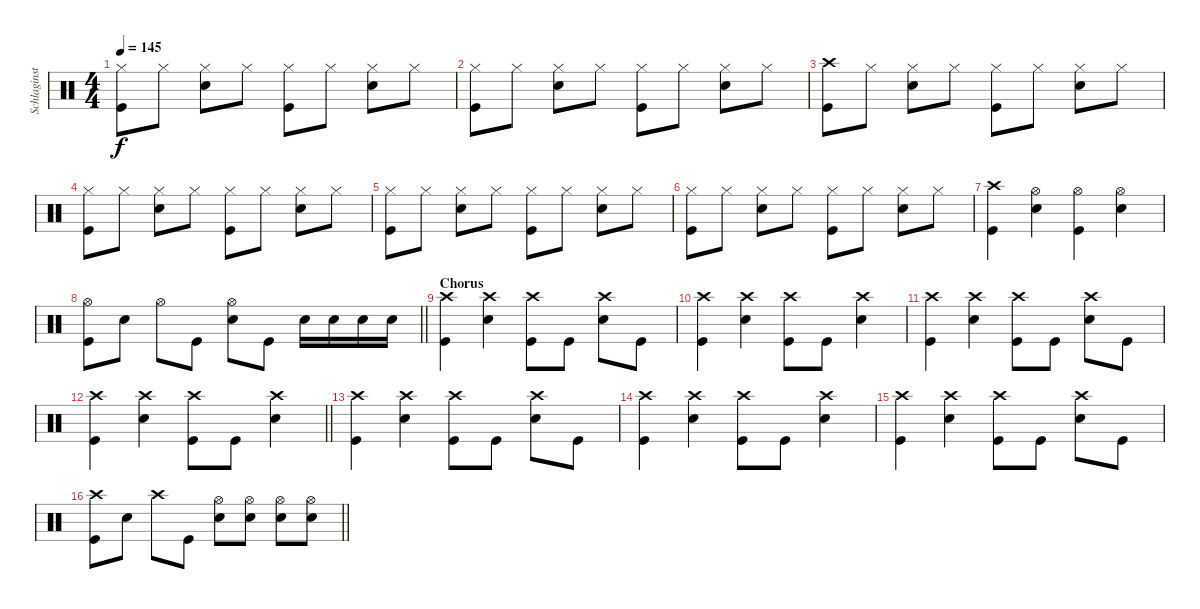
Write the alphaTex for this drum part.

\track ("Schlaginstrumente - Auswahl" "Schlaginst") {instrument percussion}
\staff {score}
\articulation defaults
\ts (4 4)
\tempo 145
\clef neutral
\ks c
("Hi-Hat (closed)" "Kick (hit)").8{dy f} "Hi-Hat (closed)".8 ("Hi-Hat (closed)" "Snare (hit) 2").8 "Hi-Hat (closed)".8 ("Hi-Hat (closed)" "Kick (hit)").8 "Hi-Hat (closed)".8 ("Hi-Hat (closed)" "Snare (hit) 2").8 "Hi-Hat (closed)".8 |
("Hi-Hat (closed)" "Kick (hit)").8 "Hi-Hat (closed)".8 ("Hi-Hat (closed)" "Snare (hit) 2").8 "Hi-Hat (closed)".8 ("Hi-Hat (closed)" "Kick (hit)").8 "Hi-Hat (closed)".8 ("Hi-Hat (closed)" "Snare (hit) 2").8 "Hi-Hat (closed)".8 |
("Crash high (hit)" "Kick (hit)").8 "Hi-Hat (closed)".8 ("Hi-Hat (closed)" "Snare (hit) 2").8 "Hi-Hat (closed)".8 ("Hi-Hat (closed)" "Kick (hit)").8 "Hi-Hat (closed)".8 ("Hi-Hat (closed)" "Snare (hit) 2").8 "Hi-Hat (closed)".8 |
("Hi-Hat (closed)" "Kick (hit)").8 "Hi-Hat (closed)".8 ("Hi-Hat (closed)" "Snare (hit) 2").8 "Hi-Hat (closed)".8 ("Hi-Hat (closed)" "Kick (hit)").8 "Hi-Hat (closed)".8 ("Hi-Hat (closed)" "Snare (hit) 2").8 "Hi-Hat (closed)".8 |
("Hi-Hat (closed)" "Kick (hit)").8 "Hi-Hat (closed)".8 ("Hi-Hat (closed)" "Snare (hit) 2").8 "Hi-Hat (closed)".8 ("Hi-Hat (closed)" "Kick (hit)").8 "Hi-Hat (closed)".8 ("Hi-Hat (closed)" "Snare (hit) 2").8 "Hi-Hat (closed)".8 |
("Hi-Hat (closed)" "Kick (hit)").8 "Hi-Hat (closed)".8 ("Hi-Hat (closed)" "Snare (hit) 2").8 "Hi-Hat (closed)".8 ("Hi-Hat (closed)" "Kick (hit)").8 "Hi-Hat (closed)".8 ("Hi-Hat (closed)" "Snare (hit) 2").8 "Hi-Hat (closed)".8 |
("Crash high (hit)" "Kick (hit)").4 ("Snare (hit) 2" "Hi-Hat (open)").4 ("Kick (hit)" "Hi-Hat (open)").4 ("Snare (hit) 2" "Hi-Hat (open)").4 |
\barLineRight lightlight
("Kick (hit)" "Hi-Hat (open)").8 "Snare (hit) 2".8 "Hi-Hat (open)".8 "Kick (hit)".8 ("Snare (hit) 2" "Hi-Hat (open)").8 "Kick (hit)".8 "Snare (hit) 2".16 "Snare (hit) 2".16 "Snare (hit) 2".16 "Snare (hit) 2".16 |
\section ("" "Chorus")
("Kick (hit)" "Crash high (hit)").4 ("Snare (hit) 2" "Crash high (hit)").4 ("Kick (hit)" "Crash high (hit)").8 "Kick (hit)".8 ("Snare (hit) 2" "Crash high (hit)").8 "Kick (hit)".8 |
("Kick (hit)" "Crash high (hit)").4 ("Snare (hit) 2" "Crash high (hit)").4 ("Kick (hit)" "Crash high (hit)").8 "Kick (hit)".8 ("Snare (hit) 2" "Crash high (hit)").4 |
("Kick (hit)" "Crash high (hit)").4 ("Snare (hit) 2" "Crash high (hit)").4 ("Kick (hit)" "Crash high (hit)").8 "Kick (hit)".8 ("Snare (hit) 2" "Crash high (hit)").8 "Kick (hit)".8 |
\barLineRight lightlight
("Kick (hit)" "Crash high (hit)").4 ("Snare (hit) 2" "Crash high (hit)").4 ("Kick (hit)" "Crash high (hit)").8 "Kick (hit)".8 ("Snare (hit) 2" "Crash high (hit)").4 |
("Kick (hit)" "Crash high (hit)").4 ("Snare (hit) 2" "Crash high (hit)").4 ("Kick (hit)" "Crash high (hit)").8 "Kick (hit)".8 ("Snare (hit) 2" "Crash high (hit)").8 "Kick (hit)".8 |
("Kick (hit)" "Crash high (hit)").4 ("Snare (hit) 2" "Crash high (hit)").4 ("Kick (hit)" "Crash high (hit)").8 "Kick (hit)".8 ("Snare (hit) 2" "Crash high (hit)").4 |
("Kick (hit)" "Crash high (hit)").4 ("Snare (hit) 2" "Crash high (hit)").4 ("Kick (hit)" "Crash high (hit)").8 "Kick (hit)".8 ("Snare (hit) 2" "Crash high (hit)").8 "Kick (hit)".8 |
\barLineRight lightlight
("Kick (hit)" "Crash high (hit)").8 "Snare (hit) 2".8 "Crash high (hit)".8 "Kick (hit)".8 ("Snare (hit) 2" "Hi-Hat (open)").8 ("Hi-Hat (open)" "Snare (hit) 2").8 ("Snare (hit) 2" "Hi-Hat (open)").8 ("Snare (hit) 2" "Hi-Hat (open)").8
